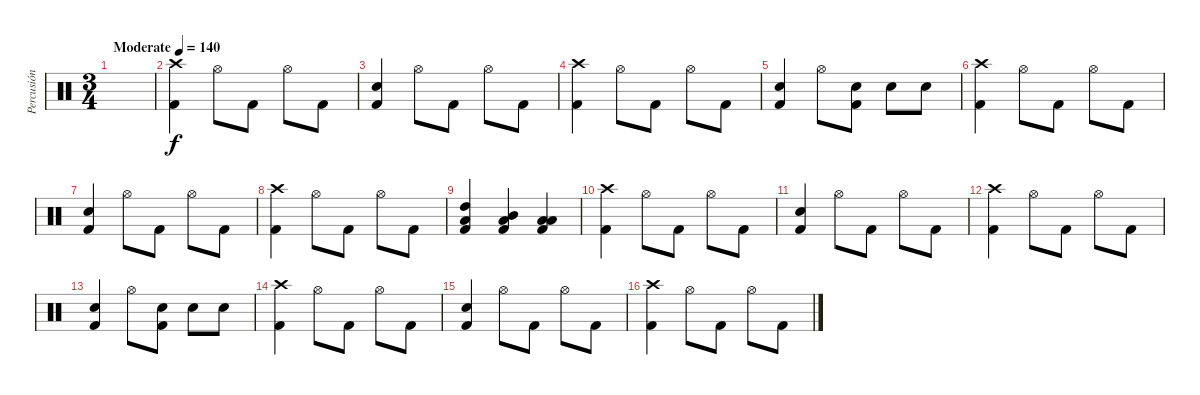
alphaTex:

\track ("Percusión" "Percusión") {instrument percussion}
\staff {score}
\articulation defaults
\ts (3 4)
\tempo (140 "Moderate")
\clef neutral
\ks c
|
("Crash high (hit)" "Kick (hit) 2").4 "Hi-Hat (open)".8 "Kick (hit) 2".8 "Hi-Hat (open)".8 "Kick (hit) 2".8 |
("Electric Snare (hit)" "Kick (hit) 2").4 "Hi-Hat (open)".8 "Kick (hit) 2".8 "Hi-Hat (open)".8 "Kick (hit) 2".8 |
("Crash high (hit)" "Kick (hit) 2").4 "Hi-Hat (open)".8 "Kick (hit) 2".8 "Hi-Hat (open)".8 "Kick (hit) 2".8 |
("Electric Snare (hit)" "Kick (hit) 2").4 "Hi-Hat (open)".8 ("Electric Snare (hit)" "Kick (hit) 2").8 "Electric Snare (hit)".8 "Electric Snare (hit)".8 |
("Crash high (hit)" "Kick (hit) 2").4 "Hi-Hat (open)".8 "Kick (hit) 2".8 "Hi-Hat (open)".8 "Kick (hit) 2".8 |
("Electric Snare (hit)" "Kick (hit) 2").4 "Hi-Hat (open)".8 "Kick (hit) 2".8 "Hi-Hat (open)".8 "Kick (hit) 2".8 |
("Crash high (hit)" "Kick (hit) 2").4 "Hi-Hat (open)".8 "Kick (hit) 2".8 "Hi-Hat (open)".8 "Kick (hit) 2".8 |
("High Tom (hit)" "Low Floor Tom (hit)" "Kick (hit) 2").4 ("Mid Tom (hit)" "Low Floor Tom (hit)" "Kick (hit) 2").4 ("Low Tom (hit)" "Low Floor Tom (hit)" "Kick (hit) 2").4 |
("Crash high (hit)" "Kick (hit) 2").4 "Hi-Hat (open)".8 "Kick (hit) 2".8 "Hi-Hat (open)".8 "Kick (hit) 2".8 |
("Electric Snare (hit)" "Kick (hit) 2").4 "Hi-Hat (open)".8 "Kick (hit) 2".8 "Hi-Hat (open)".8 "Kick (hit) 2".8 |
("Crash high (hit)" "Kick (hit) 2").4 "Hi-Hat (open)".8 "Kick (hit) 2".8 "Hi-Hat (open)".8 "Kick (hit) 2".8 |
("Electric Snare (hit)" "Kick (hit) 2").4 "Hi-Hat (open)".8 ("Electric Snare (hit)" "Kick (hit) 2").8 "Electric Snare (hit)".8 "Electric Snare (hit)".8 |
("Crash high (hit)" "Kick (hit) 2").4 "Hi-Hat (open)".8 "Kick (hit) 2".8 "Hi-Hat (open)".8 "Kick (hit) 2".8 |
("Electric Snare (hit)" "Kick (hit) 2").4 "Hi-Hat (open)".8 "Kick (hit) 2".8 "Hi-Hat (open)".8 "Kick (hit) 2".8 |
("Crash high (hit)" "Kick (hit) 2").4 "Hi-Hat (open)".8 "Kick (hit) 2".8 "Hi-Hat (open)".8 "Kick (hit) 2".8
